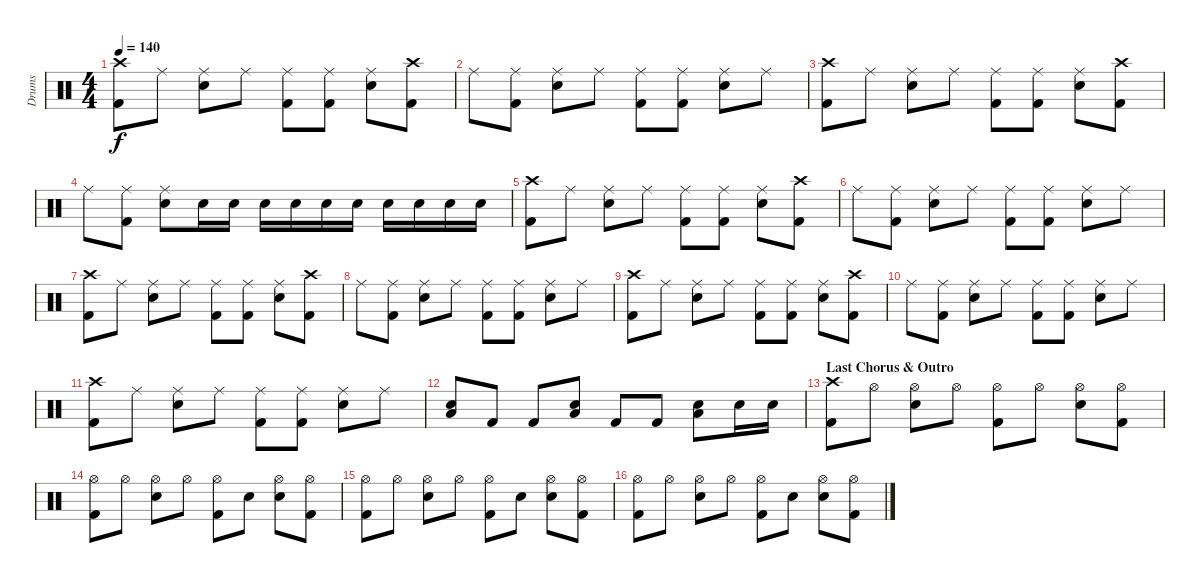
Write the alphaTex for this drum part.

\track ("Drums" "Drums") {instrument percussion}
\staff {score}
\articulation defaults
\ts (4 4)
\tempo 140
\clef neutral
\ks c
("Crash high (hit)" "Kick (hit) 2").8{dy f} "Ride (middle)".8 ("Ride (middle)" "Electric Snare (hit)").8 "Ride (middle)".8 ("Ride (middle)" "Kick (hit) 2").8 ("Ride (middle)" "Kick (hit) 2").8 ("Ride (middle)" "Electric Snare (hit)").8 ("Crash high (hit)" "Kick (hit) 2").8 |
"Ride (middle)".8 ("Ride (middle)" "Kick (hit) 2").8 ("Ride (middle)" "Electric Snare (hit)").8 "Ride (middle)".8 ("Ride (middle)" "Kick (hit) 2").8 ("Ride (middle)" "Kick (hit) 2").8 ("Ride (middle)" "Electric Snare (hit)").8 "Ride (middle)".8 |
("Crash high (hit)" "Kick (hit) 2").8 "Ride (middle)".8 ("Ride (middle)" "Electric Snare (hit)").8 "Ride (middle)".8 ("Ride (middle)" "Kick (hit) 2").8 ("Ride (middle)" "Kick (hit) 2").8 ("Ride (middle)" "Electric Snare (hit)").8 ("Crash high (hit)" "Kick (hit) 2").8 |
"Ride (middle)".8 ("Ride (middle)" "Kick (hit) 2").8 ("Ride (middle)" "Electric Snare (hit)").8 "Electric Snare (hit)".16 "Electric Snare (hit)".16 "Electric Snare (hit)".16 "Electric Snare (hit)".16 "Electric Snare (hit)".16 "Electric Snare (hit)".16 "Electric Snare (hit)".16 "Electric Snare (hit)".16 "Electric Snare (hit)".16 "Electric Snare (hit)".16 |
("Crash high (hit)" "Kick (hit) 2").8 "Ride (middle)".8 ("Ride (middle)" "Electric Snare (hit)").8 "Ride (middle)".8 ("Ride (middle)" "Kick (hit) 2").8 ("Ride (middle)" "Kick (hit) 2").8 ("Ride (middle)" "Electric Snare (hit)").8 ("Crash high (hit)" "Kick (hit) 2").8 |
"Ride (middle)".8 ("Ride (middle)" "Kick (hit) 2").8 ("Ride (middle)" "Electric Snare (hit)").8 "Ride (middle)".8 ("Ride (middle)" "Kick (hit) 2").8 ("Ride (middle)" "Kick (hit) 2").8 ("Ride (middle)" "Electric Snare (hit)").8 "Ride (middle)".8 |
("Crash high (hit)" "Kick (hit) 2").8 "Ride (middle)".8 ("Ride (middle)" "Electric Snare (hit)").8 "Ride (middle)".8 ("Ride (middle)" "Kick (hit) 2").8 ("Ride (middle)" "Kick (hit) 2").8 ("Ride (middle)" "Electric Snare (hit)").8 ("Crash high (hit)" "Kick (hit) 2").8 |
"Ride (middle)".8 ("Ride (middle)" "Kick (hit) 2").8 ("Ride (middle)" "Electric Snare (hit)").8 "Ride (middle)".8 ("Ride (middle)" "Kick (hit) 2").8 ("Ride (middle)" "Kick (hit) 2").8 ("Ride (middle)" "Electric Snare (hit)").8 "Ride (middle)".8 |
("Crash high (hit)" "Kick (hit) 2").8 "Ride (middle)".8 ("Ride (middle)" "Electric Snare (hit)").8 "Ride (middle)".8 ("Ride (middle)" "Kick (hit) 2").8 ("Ride (middle)" "Kick (hit) 2").8 ("Ride (middle)" "Electric Snare (hit)").8 ("Crash high (hit)" "Kick (hit) 2").8 |
"Ride (middle)".8 ("Ride (middle)" "Kick (hit) 2").8 ("Ride (middle)" "Electric Snare (hit)").8 "Ride (middle)".8 ("Ride (middle)" "Kick (hit) 2").8 ("Ride (middle)" "Kick (hit) 2").8 ("Ride (middle)" "Electric Snare (hit)").8 "Ride (middle)".8 |
("Crash high (hit)" "Kick (hit) 2").8 "Ride (middle)".8 ("Ride (middle)" "Electric Snare (hit)").8 "Ride (middle)".8 ("Ride (middle)" "Kick (hit) 2").8 ("Ride (middle)" "Kick (hit) 2").8 ("Ride (middle)" "Electric Snare (hit)").8 "Ride (middle)".8 |
("Electric Snare (hit)" "Low Floor Tom (hit)").8 "Kick (hit) 2".8 "Kick (hit) 2".8 ("Electric Snare (hit)" "Low Floor Tom (hit)").8 "Kick (hit) 2".8 "Kick (hit) 2".8 ("Electric Snare (hit)" "Low Floor Tom (hit)").8 "Electric Snare (hit)".16 "Electric Snare (hit)".16 |
\section ("" "Last Chorus & Outro")
("Crash high (hit)" "Kick (hit) 2").8 "Hi-Hat (open)".8 ("Hi-Hat (open)" "Electric Snare (hit)").8 "Hi-Hat (open)".8 ("Hi-Hat (open)" "Kick (hit) 2").8 "Hi-Hat (open)".8 ("Hi-Hat (open)" "Electric Snare (hit)").8 ("Hi-Hat (open)" "Kick (hit) 2").8 |
("Hi-Hat (open)" "Kick (hit) 2").8 "Hi-Hat (open)".8 ("Hi-Hat (open)" "Electric Snare (hit)").8 "Hi-Hat (open)".8 ("Hi-Hat (open)" "Kick (hit) 2").8 "Electric Snare (hit)".8 ("Hi-Hat (open)" "Electric Snare (hit)").8 ("Hi-Hat (open)" "Kick (hit) 2").8 |
("Hi-Hat (open)" "Kick (hit) 2").8 "Hi-Hat (open)".8 ("Hi-Hat (open)" "Electric Snare (hit)").8 "Hi-Hat (open)".8 ("Hi-Hat (open)" "Kick (hit) 2").8 "Electric Snare (hit)".8 ("Hi-Hat (open)" "Electric Snare (hit)").8 ("Hi-Hat (open)" "Kick (hit) 2").8 |
("Hi-Hat (open)" "Kick (hit) 2").8 "Hi-Hat (open)".8 ("Hi-Hat (open)" "Electric Snare (hit)").8 "Hi-Hat (open)".8 ("Hi-Hat (open)" "Kick (hit) 2").8 "Electric Snare (hit)".8 ("Hi-Hat (open)" "Electric Snare (hit)").8 ("Hi-Hat (open)" "Kick (hit) 2").8
